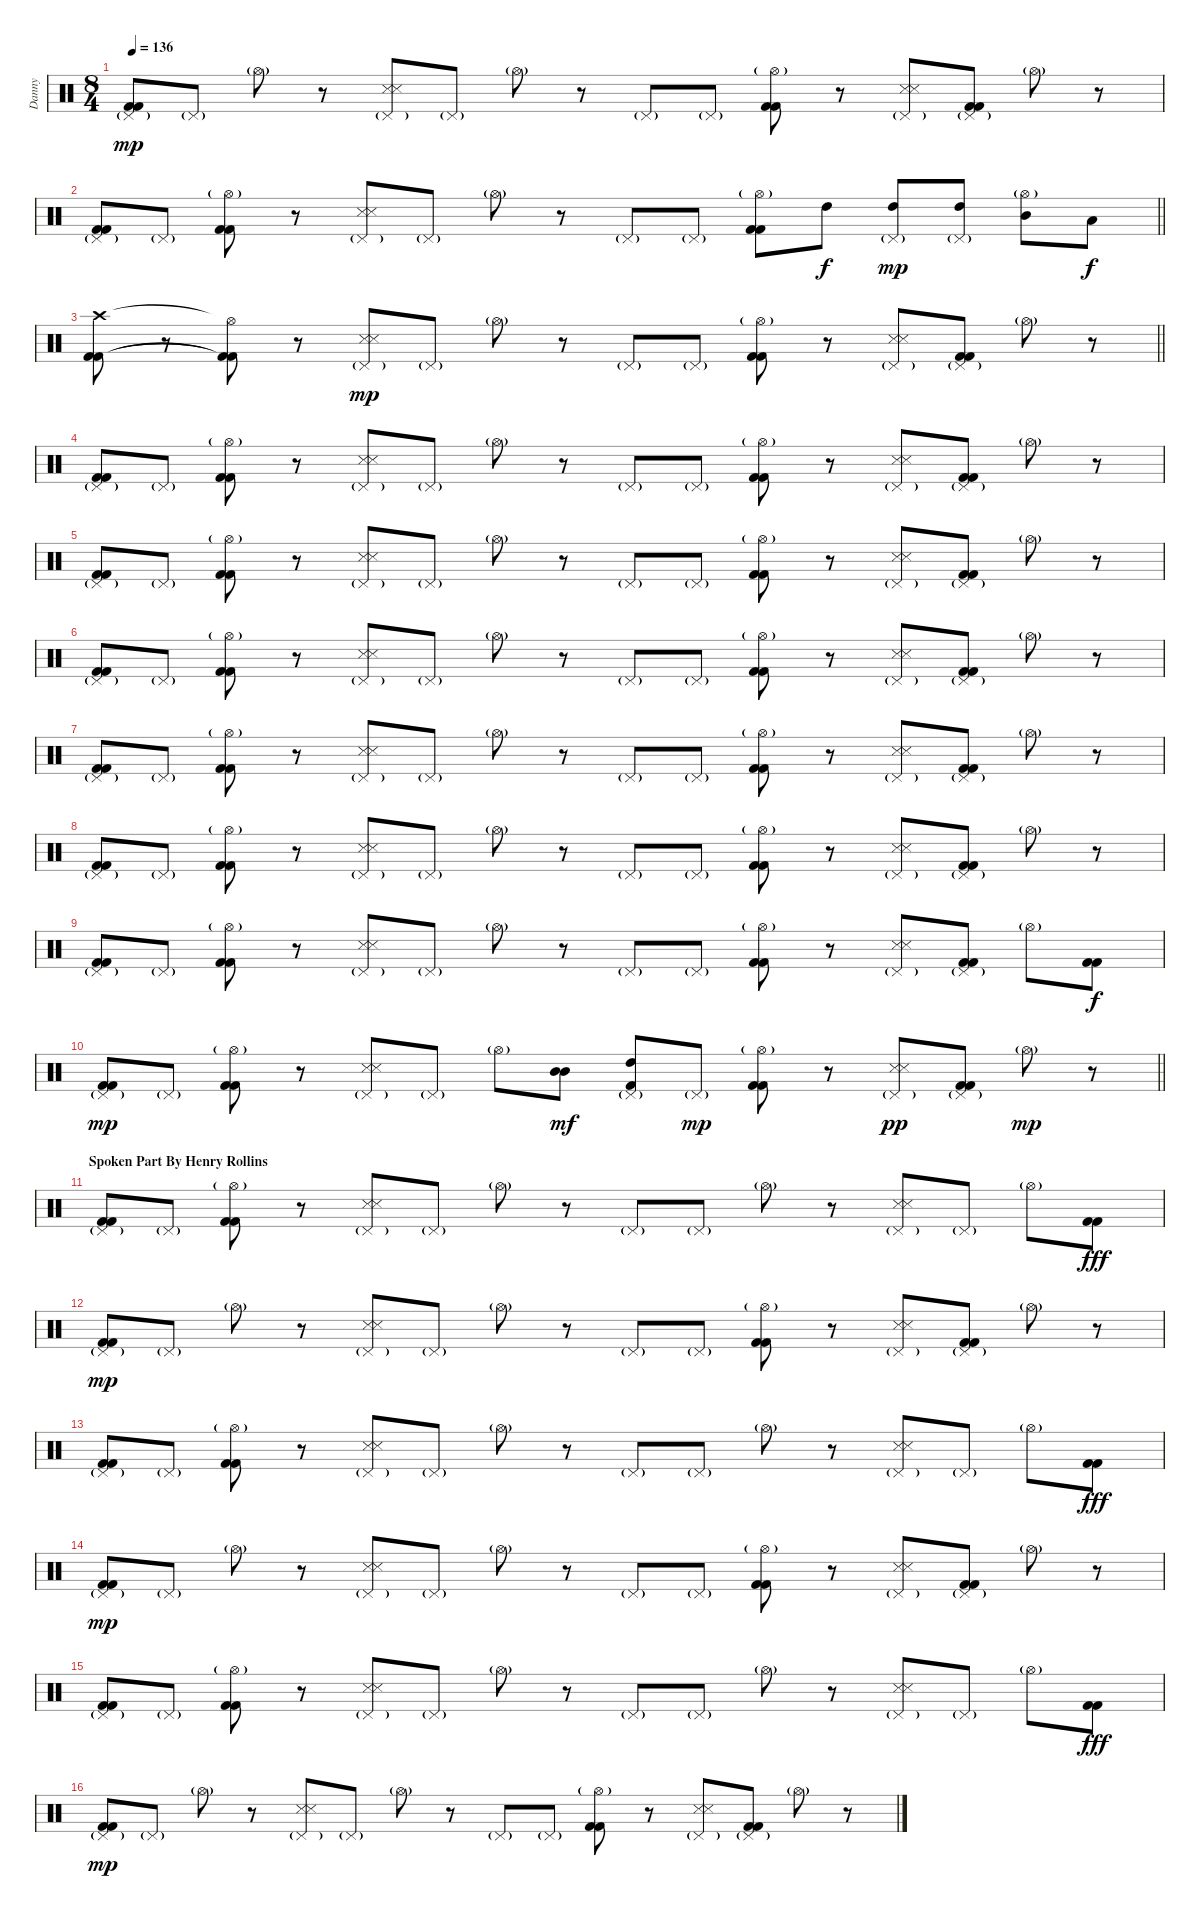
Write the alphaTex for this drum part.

\track ("Danny" "Danny") {instrument percussion}
\staff {score}
\articulation defaults
\ts (8 4)
\tempo 136
\clef neutral
\ks c
("Pedal Hi-Hat (hit)"{g} "Kick (hit) 2" "Kick (hit) 2").8{dy mp} "Pedal Hi-Hat (hit)"{g}.8 "Hi-Hat (open)"{g}.8 r.8 ("Pedal Hi-Hat (hit)"{g} "Snare (side stick) 3" "Snare (side stick) 3").8 "Pedal Hi-Hat (hit)"{g}.8 "Hi-Hat (open)"{g}.8 r.8 "Pedal Hi-Hat (hit)"{g}.8 "Pedal Hi-Hat (hit)"{g}.8 ("Hi-Hat (open)"{g} "Kick (hit) 2" "Kick (hit) 2").8 r.8 ("Pedal Hi-Hat (hit)"{g} "Snare (side stick) 3" "Snare (side stick) 3").8 ("Pedal Hi-Hat (hit)"{g} "Kick (hit) 2" "Kick (hit) 2").8 "Hi-Hat (open)"{g}.8 r.8 |
\barLineRight lightlight
("Pedal Hi-Hat (hit)"{g} "Kick (hit) 2" "Kick (hit) 2").8 "Pedal Hi-Hat (hit)"{g}.8 ("Hi-Hat (open)"{g} "Kick (hit) 2" "Kick (hit) 2").8 r.8 ("Pedal Hi-Hat (hit)"{g} "Snare (side stick) 3" "Snare (side stick) 3").8 "Pedal Hi-Hat (hit)"{g}.8 "Hi-Hat (open)"{g}.8 r.8 "Pedal Hi-Hat (hit)"{g}.8 "Pedal Hi-Hat (hit)"{g}.8 ("Hi-Hat (open)"{g} "Kick (hit) 2" "Kick (hit) 2").8 "High Tom (hit)".8{dy f} ("Pedal Hi-Hat (hit)"{g} "High Tom (hit)").8{dy mp} ("Pedal Hi-Hat (hit)"{g} "High Tom (hit)").8 ("Hi-Hat (open)"{g} "Mid Tom (hit)").8 "Low Tom (hit)".8{dy f} |
\section ("" "")
\barLineRight lightlight
("Crash high (hit)" "Kick (hit) 2" "Kick (hit) 2").8 r.8 ("Hi-Hat (open)"{t} "Kick (hit) 2"{t} "Kick (hit) 2"{t}).8 r.8 ("Pedal Hi-Hat (hit)"{g} "Snare (side stick) 3" "Snare (side stick) 3").8{dy mp} "Pedal Hi-Hat (hit)"{g}.8 "Hi-Hat (open)"{g}.8 r.8 "Pedal Hi-Hat (hit)"{g}.8 "Pedal Hi-Hat (hit)"{g}.8 ("Hi-Hat (open)"{g} "Kick (hit) 2" "Kick (hit) 2").8 r.8 ("Pedal Hi-Hat (hit)"{g} "Snare (side stick) 3" "Snare (side stick) 3").8 ("Pedal Hi-Hat (hit)"{g} "Kick (hit) 2" "Kick (hit) 2").8 "Hi-Hat (open)"{g}.8 r.8 |
("Pedal Hi-Hat (hit)"{g} "Kick (hit) 2" "Kick (hit) 2").8 "Pedal Hi-Hat (hit)"{g}.8 ("Hi-Hat (open)"{g} "Kick (hit) 2" "Kick (hit) 2").8 r.8 ("Pedal Hi-Hat (hit)"{g} "Snare (side stick) 3" "Snare (side stick) 3").8 "Pedal Hi-Hat (hit)"{g}.8 "Hi-Hat (open)"{g}.8 r.8 "Pedal Hi-Hat (hit)"{g}.8 "Pedal Hi-Hat (hit)"{g}.8 ("Hi-Hat (open)"{g} "Kick (hit) 2" "Kick (hit) 2").8 r.8 ("Pedal Hi-Hat (hit)"{g} "Snare (side stick) 3" "Snare (side stick) 3").8 ("Pedal Hi-Hat (hit)"{g} "Kick (hit) 2" "Kick (hit) 2").8 "Hi-Hat (open)"{g}.8 r.8 |
("Pedal Hi-Hat (hit)"{g} "Kick (hit) 2" "Kick (hit) 2").8 "Pedal Hi-Hat (hit)"{g}.8 ("Hi-Hat (open)"{g} "Kick (hit) 2" "Kick (hit) 2").8 r.8 ("Pedal Hi-Hat (hit)"{g} "Snare (side stick) 3" "Snare (side stick) 3").8 "Pedal Hi-Hat (hit)"{g}.8 "Hi-Hat (open)"{g}.8 r.8 "Pedal Hi-Hat (hit)"{g}.8 "Pedal Hi-Hat (hit)"{g}.8 ("Hi-Hat (open)"{g} "Kick (hit) 2" "Kick (hit) 2").8 r.8 ("Pedal Hi-Hat (hit)"{g} "Snare (side stick) 3" "Snare (side stick) 3").8 ("Pedal Hi-Hat (hit)"{g} "Kick (hit) 2" "Kick (hit) 2").8 "Hi-Hat (open)"{g}.8 r.8 |
("Pedal Hi-Hat (hit)"{g} "Kick (hit) 2" "Kick (hit) 2").8 "Pedal Hi-Hat (hit)"{g}.8 ("Hi-Hat (open)"{g} "Kick (hit) 2" "Kick (hit) 2").8 r.8 ("Pedal Hi-Hat (hit)"{g} "Snare (side stick) 3" "Snare (side stick) 3").8 "Pedal Hi-Hat (hit)"{g}.8 "Hi-Hat (open)"{g}.8 r.8 "Pedal Hi-Hat (hit)"{g}.8 "Pedal Hi-Hat (hit)"{g}.8 ("Hi-Hat (open)"{g} "Kick (hit) 2" "Kick (hit) 2").8 r.8 ("Pedal Hi-Hat (hit)"{g} "Snare (side stick) 3" "Snare (side stick) 3").8 ("Pedal Hi-Hat (hit)"{g} "Kick (hit) 2" "Kick (hit) 2").8 "Hi-Hat (open)"{g}.8 r.8 |
("Pedal Hi-Hat (hit)"{g} "Kick (hit) 2" "Kick (hit) 2").8 "Pedal Hi-Hat (hit)"{g}.8 ("Hi-Hat (open)"{g} "Kick (hit) 2" "Kick (hit) 2").8 r.8 ("Pedal Hi-Hat (hit)"{g} "Snare (side stick) 3" "Snare (side stick) 3").8 "Pedal Hi-Hat (hit)"{g}.8 "Hi-Hat (open)"{g}.8 r.8 "Pedal Hi-Hat (hit)"{g}.8 "Pedal Hi-Hat (hit)"{g}.8 ("Hi-Hat (open)"{g} "Kick (hit) 2" "Kick (hit) 2").8 r.8 ("Pedal Hi-Hat (hit)"{g} "Snare (side stick) 3" "Snare (side stick) 3").8 ("Pedal Hi-Hat (hit)"{g} "Kick (hit) 2" "Kick (hit) 2").8 "Hi-Hat (open)"{g}.8 r.8 |
("Pedal Hi-Hat (hit)"{g} "Kick (hit) 2" "Kick (hit) 2").8 "Pedal Hi-Hat (hit)"{g}.8 ("Hi-Hat (open)"{g} "Kick (hit) 2" "Kick (hit) 2").8 r.8 ("Pedal Hi-Hat (hit)"{g} "Snare (side stick) 3" "Snare (side stick) 3").8 "Pedal Hi-Hat (hit)"{g}.8 "Hi-Hat (open)"{g}.8 r.8 "Pedal Hi-Hat (hit)"{g}.8 "Pedal Hi-Hat (hit)"{g}.8 ("Hi-Hat (open)"{g} "Kick (hit) 2" "Kick (hit) 2").8 r.8 ("Pedal Hi-Hat (hit)"{g} "Snare (side stick) 3" "Snare (side stick) 3").8 ("Pedal Hi-Hat (hit)"{g} "Kick (hit) 2" "Kick (hit) 2").8 "Hi-Hat (open)"{g}.8 r.8 |
("Pedal Hi-Hat (hit)"{g} "Kick (hit) 2" "Kick (hit) 2").8 "Pedal Hi-Hat (hit)"{g}.8 ("Hi-Hat (open)"{g} "Kick (hit) 2" "Kick (hit) 2").8 r.8 ("Pedal Hi-Hat (hit)"{g} "Snare (side stick) 3" "Snare (side stick) 3").8 "Pedal Hi-Hat (hit)"{g}.8 "Hi-Hat (open)"{g}.8 r.8 "Pedal Hi-Hat (hit)"{g}.8 "Pedal Hi-Hat (hit)"{g}.8 ("Hi-Hat (open)"{g} "Kick (hit) 2" "Kick (hit) 2").8 r.8 ("Pedal Hi-Hat (hit)"{g} "Snare (side stick) 3" "Snare (side stick) 3").8 ("Pedal Hi-Hat (hit)"{g} "Kick (hit) 2" "Kick (hit) 2").8 "Hi-Hat (open)"{g}.8 ("Kick (hit) 2" "Kick (hit) 2").8{dy f} |
\barLineRight lightlight
("Pedal Hi-Hat (hit)"{g} "Kick (hit) 2" "Kick (hit) 2").8{dy mp} "Pedal Hi-Hat (hit)"{g}.8 ("Hi-Hat (open)"{g} "Kick (hit) 2" "Kick (hit) 2").8 r.8 ("Pedal Hi-Hat (hit)"{g} "Snare (side stick) 3" "Snare (side stick) 3").8 "Pedal Hi-Hat (hit)"{g}.8 "Hi-Hat (open)"{g}.8 ("Mid Tom (hit)" "Mid Tom (hit)").8{dy mf} ("Pedal Hi-Hat (hit)"{g} "High Tom (hit)" "Kick (hit) 2").8 "Pedal Hi-Hat (hit)"{g}.8{dy mp} ("Hi-Hat (open)"{g} "Kick (hit) 2" "Kick (hit) 2").8 r.8 ("Pedal Hi-Hat (hit)"{g} "Snare (side stick) 3" "Snare (side stick) 3").8{dy pp} ("Pedal Hi-Hat (hit)"{g} "Kick (hit) 2" "Kick (hit) 2").8 "Hi-Hat (open)"{g}.8{dy mp} r.8 |
\section ("" "Spoken Part By Henry Rollins")
("Pedal Hi-Hat (hit)"{g} "Kick (hit) 2" "Kick (hit) 2").8 "Pedal Hi-Hat (hit)"{g}.8 ("Hi-Hat (open)"{g} "Kick (hit) 2" "Kick (hit) 2").8 r.8 ("Pedal Hi-Hat (hit)"{g} "Snare (side stick) 3" "Snare (side stick) 3").8 "Pedal Hi-Hat (hit)"{g}.8 "Hi-Hat (open)"{g}.8 r.8 "Pedal Hi-Hat (hit)"{g}.8 "Pedal Hi-Hat (hit)"{g}.8 "Hi-Hat (open)"{g}.8 r.8 ("Pedal Hi-Hat (hit)"{g} "Snare (side stick) 3" "Snare (side stick) 3").8 "Pedal Hi-Hat (hit)"{g}.8 "Hi-Hat (open)"{g}.8 ("Kick (hit) 2" "Kick (hit) 2").8{dy fff} |
("Pedal Hi-Hat (hit)"{g} "Kick (hit) 2" "Kick (hit) 2").8{dy mp} "Pedal Hi-Hat (hit)"{g}.8 "Hi-Hat (open)"{g}.8 r.8 ("Pedal Hi-Hat (hit)"{g} "Snare (side stick) 3" "Snare (side stick) 3").8 "Pedal Hi-Hat (hit)"{g}.8 "Hi-Hat (open)"{g}.8 r.8 "Pedal Hi-Hat (hit)"{g}.8 "Pedal Hi-Hat (hit)"{g}.8 ("Hi-Hat (open)"{g} "Kick (hit) 2" "Kick (hit) 2").8 r.8 ("Pedal Hi-Hat (hit)"{g} "Snare (side stick) 3" "Snare (side stick) 3").8 ("Pedal Hi-Hat (hit)"{g} "Kick (hit) 2" "Kick (hit) 2").8 "Hi-Hat (open)"{g}.8 r.8 |
("Pedal Hi-Hat (hit)"{g} "Kick (hit) 2" "Kick (hit) 2").8 "Pedal Hi-Hat (hit)"{g}.8 ("Hi-Hat (open)"{g} "Kick (hit) 2" "Kick (hit) 2").8 r.8 ("Pedal Hi-Hat (hit)"{g} "Snare (side stick) 3" "Snare (side stick) 3").8 "Pedal Hi-Hat (hit)"{g}.8 "Hi-Hat (open)"{g}.8 r.8 "Pedal Hi-Hat (hit)"{g}.8 "Pedal Hi-Hat (hit)"{g}.8 "Hi-Hat (open)"{g}.8 r.8 ("Pedal Hi-Hat (hit)"{g} "Snare (side stick) 3" "Snare (side stick) 3").8 "Pedal Hi-Hat (hit)"{g}.8 "Hi-Hat (open)"{g}.8 ("Kick (hit) 2" "Kick (hit) 2").8{dy fff} |
("Pedal Hi-Hat (hit)"{g} "Kick (hit) 2" "Kick (hit) 2").8{dy mp} "Pedal Hi-Hat (hit)"{g}.8 "Hi-Hat (open)"{g}.8 r.8 ("Pedal Hi-Hat (hit)"{g} "Snare (side stick) 3" "Snare (side stick) 3").8 "Pedal Hi-Hat (hit)"{g}.8 "Hi-Hat (open)"{g}.8 r.8 "Pedal Hi-Hat (hit)"{g}.8 "Pedal Hi-Hat (hit)"{g}.8 ("Hi-Hat (open)"{g} "Kick (hit) 2" "Kick (hit) 2").8 r.8 ("Pedal Hi-Hat (hit)"{g} "Snare (side stick) 3" "Snare (side stick) 3").8 ("Pedal Hi-Hat (hit)"{g} "Kick (hit) 2" "Kick (hit) 2").8 "Hi-Hat (open)"{g}.8 r.8 |
("Pedal Hi-Hat (hit)"{g} "Kick (hit) 2" "Kick (hit) 2").8 "Pedal Hi-Hat (hit)"{g}.8 ("Hi-Hat (open)"{g} "Kick (hit) 2" "Kick (hit) 2").8 r.8 ("Pedal Hi-Hat (hit)"{g} "Snare (side stick) 3" "Snare (side stick) 3").8 "Pedal Hi-Hat (hit)"{g}.8 "Hi-Hat (open)"{g}.8 r.8 "Pedal Hi-Hat (hit)"{g}.8 "Pedal Hi-Hat (hit)"{g}.8 "Hi-Hat (open)"{g}.8 r.8 ("Pedal Hi-Hat (hit)"{g} "Snare (side stick) 3" "Snare (side stick) 3").8 "Pedal Hi-Hat (hit)"{g}.8 "Hi-Hat (open)"{g}.8 ("Kick (hit) 2" "Kick (hit) 2").8{dy fff} |
("Pedal Hi-Hat (hit)"{g} "Kick (hit) 2" "Kick (hit) 2").8{dy mp} "Pedal Hi-Hat (hit)"{g}.8 "Hi-Hat (open)"{g}.8 r.8 ("Pedal Hi-Hat (hit)"{g} "Snare (side stick) 3" "Snare (side stick) 3").8 "Pedal Hi-Hat (hit)"{g}.8 "Hi-Hat (open)"{g}.8 r.8 "Pedal Hi-Hat (hit)"{g}.8 "Pedal Hi-Hat (hit)"{g}.8 ("Hi-Hat (open)"{g} "Kick (hit) 2" "Kick (hit) 2").8 r.8 ("Pedal Hi-Hat (hit)"{g} "Snare (side stick) 3" "Snare (side stick) 3").8 ("Pedal Hi-Hat (hit)"{g} "Kick (hit) 2" "Kick (hit) 2").8 "Hi-Hat (open)"{g}.8 r.8
